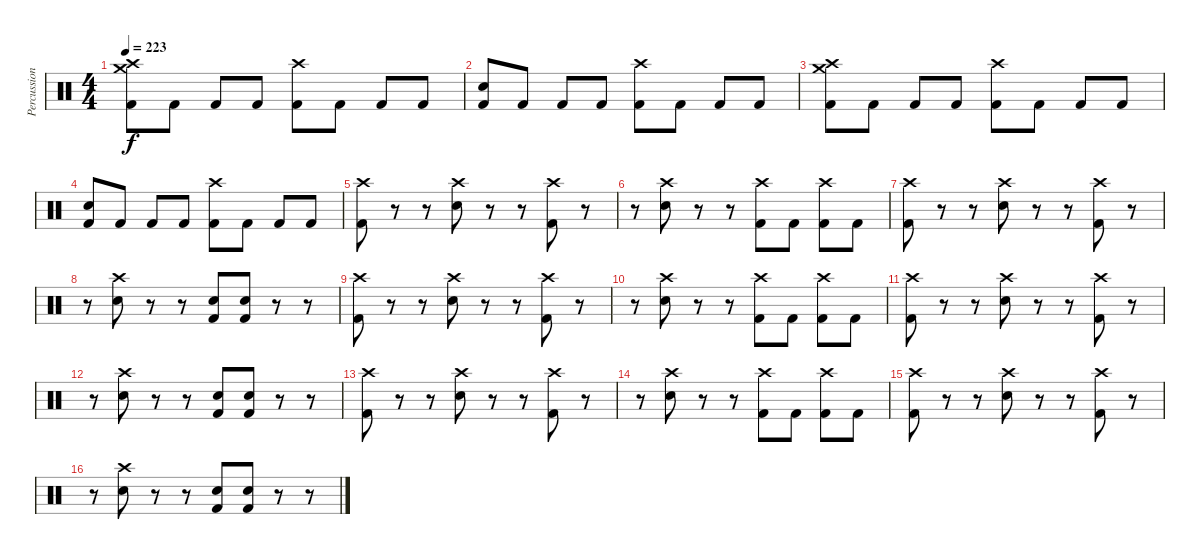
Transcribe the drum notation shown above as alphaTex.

\track ("Percussion" "Percussion") {instrument percussion}
\staff {score}
\articulation defaults
\ts (4 4)
\tempo 223
\clef neutral
\ks c
("Crash high (hit)" "Crash medium (hit)" "Kick (hit) 2").8{dy f} "Kick (hit) 2".8 "Kick (hit) 2".8 "Kick (hit) 2".8 ("Crash high (hit)" "Kick (hit) 2").8 "Kick (hit) 2".8 "Kick (hit) 2".8 "Kick (hit) 2".8 |
("Electric Snare (hit)" "Kick (hit) 2").8 "Kick (hit) 2".8 "Kick (hit) 2".8 "Kick (hit) 2".8 ("Crash high (hit)" "Kick (hit) 2").8 "Kick (hit) 2".8 "Kick (hit) 2".8 "Kick (hit) 2".8 |
("Crash high (hit)" "Crash medium (hit)" "Kick (hit) 2").8 "Kick (hit) 2".8 "Kick (hit) 2".8 "Kick (hit) 2".8 ("Crash high (hit)" "Kick (hit) 2").8 "Kick (hit) 2".8 "Kick (hit) 2".8 "Kick (hit) 2".8 |
("Electric Snare (hit)" "Kick (hit) 2").8 "Kick (hit) 2".8 "Kick (hit) 2".8 "Kick (hit) 2".8 ("Crash high (hit)" "Kick (hit) 2").8 "Kick (hit) 2".8 "Kick (hit) 2".8 "Kick (hit) 2".8 |
("Crash high (hit)" "Kick (hit) 2").8 r.8 r.8 ("Crash high (hit)" "Electric Snare (hit)").8 r.8 r.8 ("Crash high (hit)" "Kick (hit) 2").8 r.8 |
r.8 ("Crash high (hit)" "Electric Snare (hit)").8 r.8 r.8 ("Crash high (hit)" "Kick (hit) 2").8 "Kick (hit) 2".8 ("Crash high (hit)" "Kick (hit) 2").8 "Kick (hit) 2".8 |
("Crash high (hit)" "Kick (hit) 2").8 r.8 r.8 ("Crash high (hit)" "Electric Snare (hit)").8 r.8 r.8 ("Crash high (hit)" "Kick (hit) 2").8 r.8 |
r.8 ("Crash high (hit)" "Electric Snare (hit)").8 r.8 r.8 ("Electric Snare (hit)" "Kick (hit) 2").8 ("Electric Snare (hit)" "Kick (hit) 2").8 r.8 r.8 |
("Crash high (hit)" "Kick (hit) 2").8 r.8 r.8 ("Crash high (hit)" "Electric Snare (hit)").8 r.8 r.8 ("Crash high (hit)" "Kick (hit) 2").8 r.8 |
r.8 ("Crash high (hit)" "Electric Snare (hit)").8 r.8 r.8 ("Crash high (hit)" "Kick (hit) 2").8 "Kick (hit) 2".8 ("Crash high (hit)" "Kick (hit) 2").8 "Kick (hit) 2".8 |
("Crash high (hit)" "Kick (hit) 2").8 r.8 r.8 ("Crash high (hit)" "Electric Snare (hit)").8 r.8 r.8 ("Crash high (hit)" "Kick (hit) 2").8 r.8 |
r.8 ("Crash high (hit)" "Electric Snare (hit)").8 r.8 r.8 ("Electric Snare (hit)" "Kick (hit) 2").8 ("Electric Snare (hit)" "Kick (hit) 2").8 r.8 r.8 |
("Crash high (hit)" "Kick (hit) 2").8 r.8 r.8 ("Crash high (hit)" "Electric Snare (hit)").8 r.8 r.8 ("Crash high (hit)" "Kick (hit) 2").8 r.8 |
r.8 ("Crash high (hit)" "Electric Snare (hit)").8 r.8 r.8 ("Crash high (hit)" "Kick (hit) 2").8 "Kick (hit) 2".8 ("Crash high (hit)" "Kick (hit) 2").8 "Kick (hit) 2".8 |
("Crash high (hit)" "Kick (hit) 2").8 r.8 r.8 ("Crash high (hit)" "Electric Snare (hit)").8 r.8 r.8 ("Crash high (hit)" "Kick (hit) 2").8 r.8 |
r.8 ("Crash high (hit)" "Electric Snare (hit)").8 r.8 r.8 ("Electric Snare (hit)" "Kick (hit) 2").8 ("Electric Snare (hit)" "Kick (hit) 2").8 r.8 r.8
